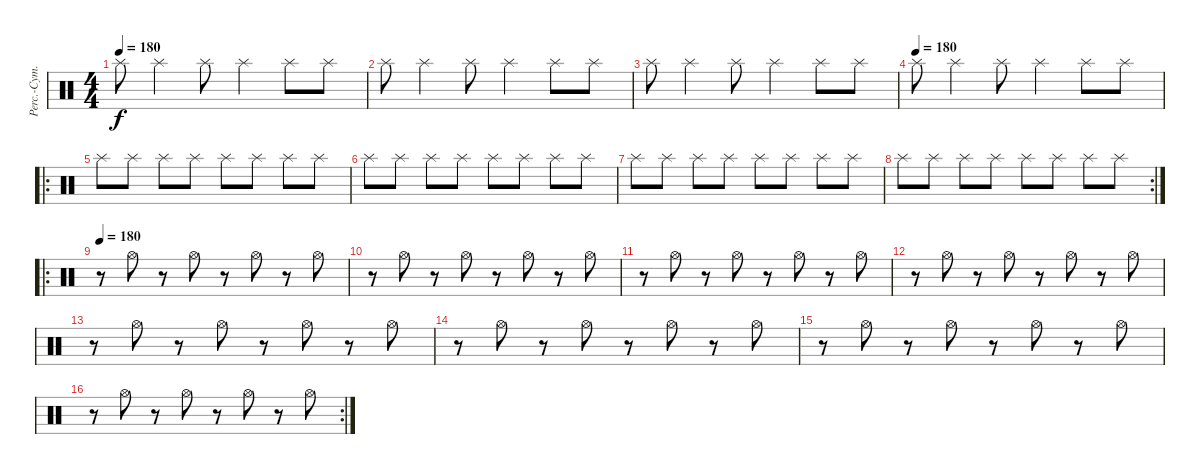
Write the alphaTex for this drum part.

\track ("Perc.-Cym. 2" "Perc.-Cym.") {instrument percussion}
\staff {score}
\articulation defaults
\ts (4 4)
\tempo 180
\clef neutral
\ks c "Splash (hit)".8{dy f} "Splash (hit)".4 "Splash (hit)".8 "Splash (hit)".4 "Splash (hit)".8 "Splash (hit)".8
|
"Splash (hit)".8 "Splash (hit)".4 "Splash (hit)".8 "Splash (hit)".4 "Splash (hit)".8 "Splash (hit)".8 |
"Splash (hit)".8 "Splash (hit)".4 "Splash (hit)".8 "Splash (hit)".4 "Splash (hit)".8 "Splash (hit)".8 |
\tempo (180)
"Splash (hit)".8 "Splash (hit)".4 "Splash (hit)".8 "Splash (hit)".4 "Splash (hit)".8 "Splash (hit)".8 |
\ro "Splash (hit)".8 "Splash (hit)".8 "Splash (hit)".8 "Splash (hit)".8 "Splash (hit)".8 "Splash (hit)".8 "Splash (hit)".8 "Splash (hit)".8
|
"Splash (hit)".8 "Splash (hit)".8 "Splash (hit)".8 "Splash (hit)".8 "Splash (hit)".8 "Splash (hit)".8 "Splash (hit)".8 "Splash (hit)".8 |
"Splash (hit)".8 "Splash (hit)".8 "Splash (hit)".8 "Splash (hit)".8 "Splash (hit)".8 "Splash (hit)".8 "Splash (hit)".8 "Splash (hit)".8 |
\rc 2 "Splash (hit)".8 "Splash (hit)".8 "Splash (hit)".8 "Splash (hit)".8 "Splash (hit)".8 "Splash (hit)".8 "Splash (hit)".8 "Splash (hit)".8
|
\ro
\tempo 180
r.8 "Hi-Hat (open)".8 r.8 "Hi-Hat (open)".8 r.8 "Hi-Hat (open)".8 r.8 "Hi-Hat (open)".8 |
r.8 "Hi-Hat (open)".8 r.8 "Hi-Hat (open)".8 r.8 "Hi-Hat (open)".8 r.8 "Hi-Hat (open)".8 |
r.8 "Hi-Hat (open)".8 r.8 "Hi-Hat (open)".8 r.8 "Hi-Hat (open)".8 r.8 "Hi-Hat (open)".8 |
r.8 "Hi-Hat (open)".8 r.8 "Hi-Hat (open)".8 r.8 "Hi-Hat (open)".8 r.8 "Hi-Hat (open)".8 |
r.8 "Hi-Hat (open)".8 r.8 "Hi-Hat (open)".8 r.8 "Hi-Hat (open)".8 r.8 "Hi-Hat (open)".8 |
r.8 "Hi-Hat (open)".8 r.8 "Hi-Hat (open)".8 r.8 "Hi-Hat (open)".8 r.8 "Hi-Hat (open)".8 |
r.8 "Hi-Hat (open)".8 r.8 "Hi-Hat (open)".8 r.8 "Hi-Hat (open)".8 r.8 "Hi-Hat (open)".8 |
\rc 2
r.8 "Hi-Hat (open)".8 r.8 "Hi-Hat (open)".8 r.8 "Hi-Hat (open)".8 r.8 "Hi-Hat (open)".8
